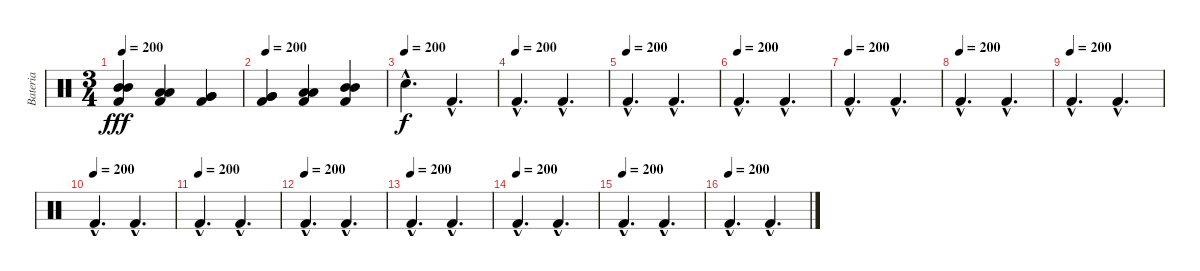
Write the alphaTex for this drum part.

\track ("Bateria" "Bateria") {instrument percussion}
\staff {score}
\articulation defaults
\ts (3 4)
\tempo 200
\clef neutral
\ks c
("Mid Tom (hit)" "Mid Tom (hit)" "Kick (hit) 2").4{dy fff volume 15} ("Low Tom (hit)" "Low Tom (hit)" "Kick (hit) 2").4 ("Very Low Tom (hit)" "Very Low Tom (hit)" "Kick (hit) 2").4 |
\tempo 200
("Very Low Tom (hit)" "Very Low Tom (hit)" "Kick (hit) 2").4 ("Low Tom (hit)" "Low Tom (hit)" "Kick (hit) 2").4 ("Mid Tom (hit)" "Mid Tom (hit)" "Kick (hit) 2").4 |
\tempo (200)
"Electric Snare (hit)"{hac}.4{d dy f} "Kick (hit) 2"{hac}.4{d volume 14} |
\tempo (200)
"Kick (hit) 2"{hac}.4{d} "Kick (hit) 2"{hac}.4{d} |
\tempo (200)
"Kick (hit) 2"{hac}.4{d} "Kick (hit) 2"{hac}.4{d} |
\tempo (200)
"Kick (hit) 2"{hac}.4{d} "Kick (hit) 2"{hac}.4{d} |
\tempo (200)
"Kick (hit) 2"{hac}.4{d} "Kick (hit) 2"{hac}.4{d} |
\tempo (200)
"Kick (hit) 2"{hac}.4{d} "Kick (hit) 2"{hac}.4{d} |
\tempo (200)
"Kick (hit) 2"{hac}.4{d} "Kick (hit) 2"{hac}.4{d} |
\tempo (200)
"Kick (hit) 2"{hac}.4{d} "Kick (hit) 2"{hac}.4{d} |
\tempo (200)
"Kick (hit) 2"{hac}.4{d} "Kick (hit) 2"{hac}.4{d} |
\tempo (200)
"Kick (hit) 2"{hac}.4{d} "Kick (hit) 2"{hac}.4{d} |
\tempo (200)
"Kick (hit) 2"{hac}.4{d} "Kick (hit) 2"{hac}.4{d} |
\tempo (200)
"Kick (hit) 2"{hac}.4{d} "Kick (hit) 2"{hac}.4{d} |
\tempo (200)
"Kick (hit) 2"{hac}.4{d} "Kick (hit) 2"{hac}.4{d} |
\tempo (200)
"Kick (hit) 2"{hac}.4{d} "Kick (hit) 2"{hac}.4{d}
